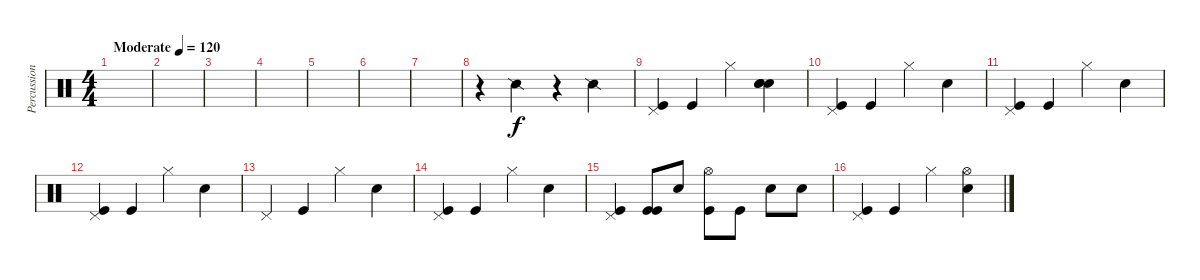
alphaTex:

\track ("Percussion" "Percussion") {instrument percussion}
\staff {score}
\articulation defaults
\ts (4 4)
\tempo (120 "Moderate")
\clef neutral
\ks c
|
|
|
|
|
|
|
r.4 "Snare (side stick) 2".4 r.4 "Snare (side stick) 2".4 |
("Pedal Hi-Hat (hit)" "Kick (hit)").4 "Kick (hit)".4 "Hi-Hat (closed)".4 ("Snare (hit) 2" "Snare (hit) 2" "Snare (hit) 2").4 |
("Pedal Hi-Hat (hit)" "Kick (hit)").4 "Kick (hit)".4 "Hi-Hat (closed)".4 "Snare (hit) 2".4 |
("Pedal Hi-Hat (hit)" "Kick (hit)").4 "Kick (hit)".4 "Hi-Hat (closed)".4 "Snare (hit) 2".4 |
("Pedal Hi-Hat (hit)" "Kick (hit)").4 "Kick (hit)".4 "Hi-Hat (closed)".4 "Snare (hit) 2".4 |
"Pedal Hi-Hat (hit)".4 "Kick (hit)".4 "Hi-Hat (closed)".4 "Snare (hit) 2".4 |
("Pedal Hi-Hat (hit)" "Kick (hit)").4 "Kick (hit)".4 "Hi-Hat (closed)".4 "Snare (hit) 2".4 |
("Pedal Hi-Hat (hit)" "Kick (hit)").4 ("Kick (hit)" "Kick (hit)").8 "Snare (hit) 2".8 ("Hi-Hat (open)" "Kick (hit)").8 "Kick (hit)".8 "Snare (hit) 2".8 "Snare (hit) 2".8 |
("Pedal Hi-Hat (hit)" "Kick (hit)").4 "Kick (hit)".4 "Hi-Hat (closed)".4 ("Hi-Hat (open)" "Snare (hit) 2").4
